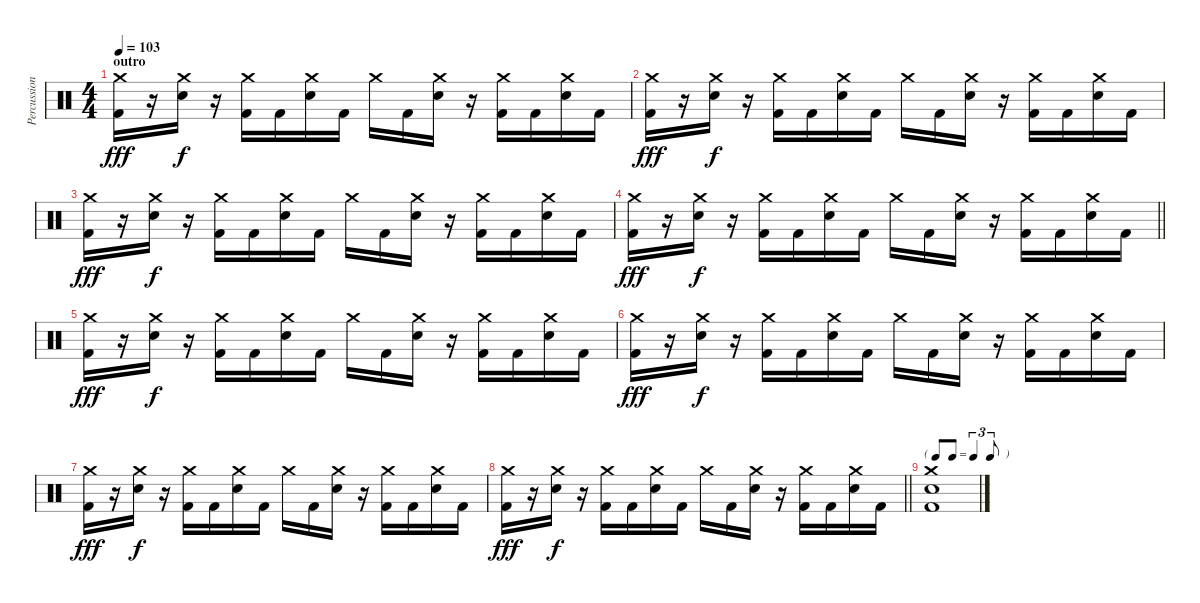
\track ("Percussion" "Percussion") {instrument percussion}
\staff {score}
\articulation defaults
\ts (4 4)
\section ("" "outro")
\tempo 103
\clef neutral
\ks c
("Crash medium (hit)" "Kick (hit) 2").16{dy fff} r.16 ("Crash medium (hit)" "Electric Snare (hit)").16{dy f} r.16 ("Crash medium (hit)" "Kick (hit) 2").16 "Kick (hit) 2".16 ("Crash medium (hit)" "Electric Snare (hit)").16 "Kick (hit) 2".16 "Crash medium (hit)".16 "Kick (hit) 2".16 ("Crash medium (hit)" "Electric Snare (hit)").16 r.16 ("Crash medium (hit)" "Kick (hit) 2").16 "Kick (hit) 2".16 ("Crash medium (hit)" "Electric Snare (hit)").16 "Kick (hit) 2".16 |
("Crash medium (hit)" "Kick (hit) 2").16{dy fff} r.16 ("Crash medium (hit)" "Electric Snare (hit)").16{dy f} r.16 ("Crash medium (hit)" "Kick (hit) 2").16 "Kick (hit) 2".16 ("Crash medium (hit)" "Electric Snare (hit)").16 "Kick (hit) 2".16 "Crash medium (hit)".16 "Kick (hit) 2".16 ("Crash medium (hit)" "Electric Snare (hit)").16 r.16 ("Crash medium (hit)" "Kick (hit) 2").16 "Kick (hit) 2".16 ("Crash medium (hit)" "Electric Snare (hit)").16 "Kick (hit) 2".16 |
("Crash medium (hit)" "Kick (hit) 2").16{dy fff} r.16 ("Crash medium (hit)" "Electric Snare (hit)").16{dy f} r.16 ("Crash medium (hit)" "Kick (hit) 2").16 "Kick (hit) 2".16 ("Crash medium (hit)" "Electric Snare (hit)").16 "Kick (hit) 2".16 "Crash medium (hit)".16 "Kick (hit) 2".16 ("Crash medium (hit)" "Electric Snare (hit)").16 r.16 ("Crash medium (hit)" "Kick (hit) 2").16 "Kick (hit) 2".16 ("Crash medium (hit)" "Electric Snare (hit)").16 "Kick (hit) 2".16 |
\barLineRight lightlight
("Crash medium (hit)" "Kick (hit) 2").16{dy fff} r.16 ("Crash medium (hit)" "Electric Snare (hit)").16{dy f} r.16 ("Crash medium (hit)" "Kick (hit) 2").16 "Kick (hit) 2".16 ("Crash medium (hit)" "Electric Snare (hit)").16 "Kick (hit) 2".16 "Crash medium (hit)".16 "Kick (hit) 2".16 ("Crash medium (hit)" "Electric Snare (hit)").16 r.16 ("Crash medium (hit)" "Kick (hit) 2").16 "Kick (hit) 2".16 ("Crash medium (hit)" "Electric Snare (hit)").16 "Kick (hit) 2".16 |
("Crash medium (hit)" "Kick (hit) 2").16{dy fff} r.16 ("Crash medium (hit)" "Electric Snare (hit)").16{dy f} r.16 ("Crash medium (hit)" "Kick (hit) 2").16 "Kick (hit) 2".16 ("Crash medium (hit)" "Electric Snare (hit)").16 "Kick (hit) 2".16 "Crash medium (hit)".16 "Kick (hit) 2".16 ("Crash medium (hit)" "Electric Snare (hit)").16 r.16 ("Crash medium (hit)" "Kick (hit) 2").16 "Kick (hit) 2".16 ("Crash medium (hit)" "Electric Snare (hit)").16 "Kick (hit) 2".16 |
("Crash medium (hit)" "Kick (hit) 2").16{dy fff} r.16 ("Crash medium (hit)" "Electric Snare (hit)").16{dy f} r.16 ("Crash medium (hit)" "Kick (hit) 2").16 "Kick (hit) 2".16 ("Crash medium (hit)" "Electric Snare (hit)").16 "Kick (hit) 2".16 "Crash medium (hit)".16 "Kick (hit) 2".16 ("Crash medium (hit)" "Electric Snare (hit)").16 r.16 ("Crash medium (hit)" "Kick (hit) 2").16 "Kick (hit) 2".16 ("Crash medium (hit)" "Electric Snare (hit)").16 "Kick (hit) 2".16 |
("Crash medium (hit)" "Kick (hit) 2").16{dy fff} r.16 ("Crash medium (hit)" "Electric Snare (hit)").16{dy f} r.16 ("Crash medium (hit)" "Kick (hit) 2").16 "Kick (hit) 2".16 ("Crash medium (hit)" "Electric Snare (hit)").16 "Kick (hit) 2".16 "Crash medium (hit)".16 "Kick (hit) 2".16 ("Crash medium (hit)" "Electric Snare (hit)").16 r.16 ("Crash medium (hit)" "Kick (hit) 2").16 "Kick (hit) 2".16 ("Crash medium (hit)" "Electric Snare (hit)").16 "Kick (hit) 2".16 |
\barLineRight lightlight
("Crash medium (hit)" "Kick (hit) 2").16{dy fff} r.16 ("Crash medium (hit)" "Electric Snare (hit)").16{dy f} r.16 ("Crash medium (hit)" "Kick (hit) 2").16 "Kick (hit) 2".16 ("Crash medium (hit)" "Electric Snare (hit)").16 "Kick (hit) 2".16 "Crash medium (hit)".16 "Kick (hit) 2".16 ("Crash medium (hit)" "Electric Snare (hit)").16 r.16 ("Crash medium (hit)" "Kick (hit) 2").16 "Kick (hit) 2".16 ("Crash medium (hit)" "Electric Snare (hit)").16 "Kick (hit) 2".16 |
\tf triplet8th
("Crash medium (hit)" "Kick (hit) 2" "Electric Snare (hit)").1
